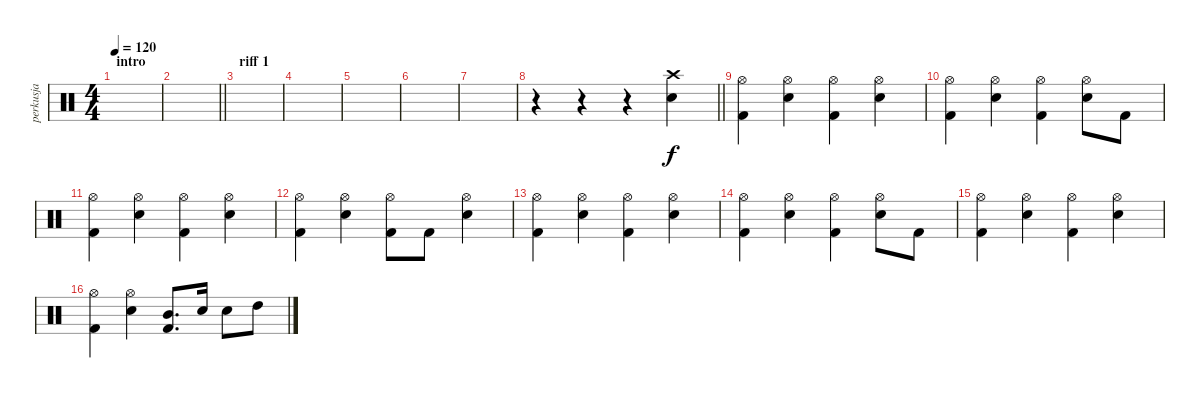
\track ("perkusja" "perkusja") {instrument percussion}
\staff {score}
\articulation defaults
\ts (4 4)
\section ("" "intro")
\tempo 120
\clef neutral
\ks c
|
\barLineRight lightlight
|
\section ("" "riff 1")
|
|
|
|
|
\barLineRight lightlight
r.4 r.4 r.4 ("Crash high (hit)" "Electric Snare (hit)").4 |
("Hi-Hat (open)" "Kick (hit) 2").4 ("Hi-Hat (open)" "Electric Snare (hit)").4 ("Hi-Hat (open)" "Kick (hit) 2").4 ("Hi-Hat (open)" "Electric Snare (hit)").4 |
("Hi-Hat (open)" "Kick (hit) 2").4 ("Hi-Hat (open)" "Electric Snare (hit)").4 ("Hi-Hat (open)" "Kick (hit) 2").4 ("Hi-Hat (open)" "Electric Snare (hit)").8 "Kick (hit) 2".8 |
("Hi-Hat (open)" "Kick (hit) 2").4 ("Hi-Hat (open)" "Electric Snare (hit)").4 ("Hi-Hat (open)" "Kick (hit) 2").4 ("Hi-Hat (open)" "Electric Snare (hit)").4 |
("Hi-Hat (open)" "Kick (hit) 2").4 ("Hi-Hat (open)" "Electric Snare (hit)").4 ("Hi-Hat (open)" "Kick (hit) 2").8 "Kick (hit) 2".8 ("Hi-Hat (open)" "Electric Snare (hit)").4 |
("Hi-Hat (open)" "Kick (hit) 2").4 ("Hi-Hat (open)" "Electric Snare (hit)").4 ("Hi-Hat (open)" "Kick (hit) 2").4 ("Hi-Hat (open)" "Electric Snare (hit)").4 |
("Hi-Hat (open)" "Kick (hit) 2").4 ("Hi-Hat (open)" "Electric Snare (hit)").4 ("Hi-Hat (open)" "Kick (hit) 2").4 ("Hi-Hat (open)" "Electric Snare (hit)").8 "Kick (hit) 2".8 |
("Hi-Hat (open)" "Kick (hit) 2").4 ("Hi-Hat (open)" "Electric Snare (hit)").4 ("Hi-Hat (open)" "Kick (hit) 2").4 ("Hi-Hat (open)" "Electric Snare (hit)").4 |
("Hi-Hat (open)" "Kick (hit) 2").4 ("Hi-Hat (open)" "Electric Snare (hit)").4 ("Mid Tom (hit)" "Kick (hit) 2").8{d} "Electric Snare (hit)".16 "Electric Snare (hit)".8 "High Tom (hit)".8
